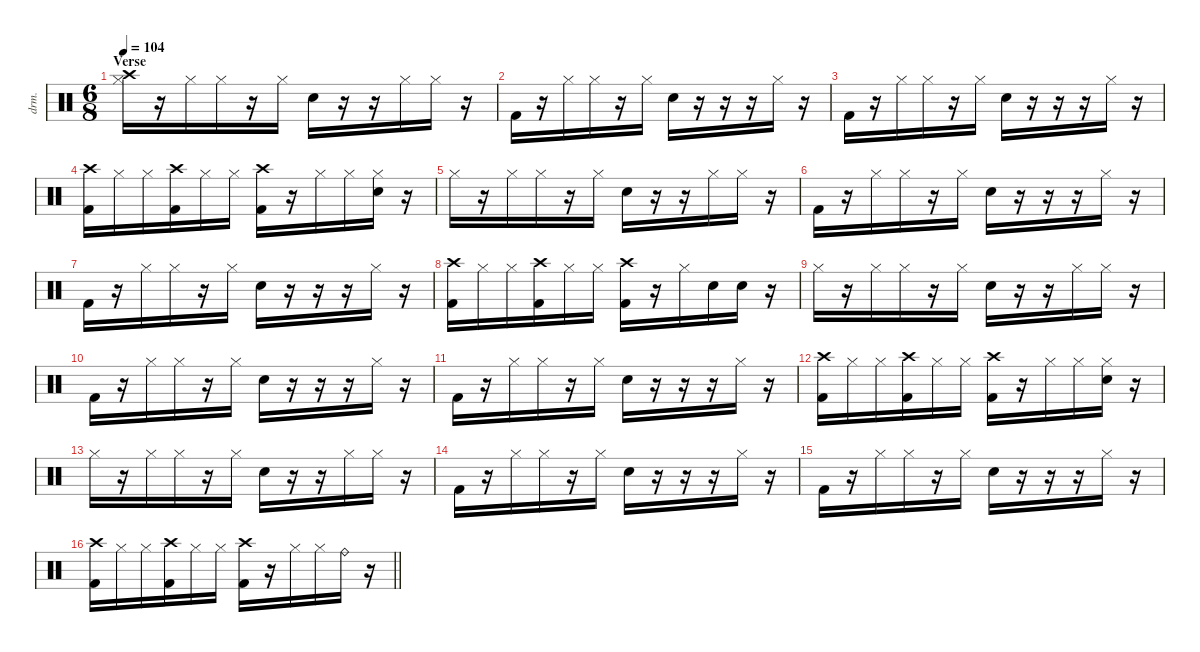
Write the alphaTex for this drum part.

\defaultSystemsLayout 4
\hideDynamics
\bracketExtendMode nobrackets
\otherSystemsTrackNameOrientation horizontal
\track ("Gene Hoglan" "drm.") {instrument percussion}
\staff {score}
\articulation defaults
\ts (6 8)
\section ("" "Verse")
\tempo 104
\clef neutral
\ks c
("Hi-Hat (closed)" "Crash high (hit)").16{dy f beam Down} r.16{beam Down} "Hi-Hat (closed)".16{beam Down} "Hi-Hat (closed)".16{beam Down} r.16{beam Down} "Hi-Hat (closed)".16{beam Down} "Snare (hit) 2".16{beam Down} r.16{beam Down} r.16{beam Down} "Hi-Hat (closed)".16{beam Down} "Hi-Hat (closed)".16{beam Down} r.16{beam Down} |
"Kick (hit) 2".16{beam Down} r.16{beam Down} "Hi-Hat (closed)".16{beam Down} "Hi-Hat (closed)".16{beam Down} r.16{beam Down} "Hi-Hat (closed)".16{beam Down} "Snare (hit) 2".16{beam Down} r.16{beam Down} r.16{beam Down} r.16{beam Down} "Hi-Hat (closed)".16{beam Down} r.16{beam Down} |
"Kick (hit) 2".16{beam Down} r.16{beam Down} "Hi-Hat (closed)".16{beam Down} "Hi-Hat (closed)".16{beam Down} r.16{beam Down} "Hi-Hat (closed)".16{beam Down} "Snare (hit) 2".16{beam Down} r.16{beam Down} r.16{beam Down} r.16{beam Down} "Hi-Hat (closed)".16{beam Down} r.16{beam Down} |
("Crash high (hit)" "Kick (hit) 2").16{beam Down} "Hi-Hat (closed)".16{beam Down} "Hi-Hat (closed)".16{beam Down} ("Crash high (hit)" "Kick (hit) 2").16{beam Down} "Hi-Hat (closed)".16{beam Down} "Hi-Hat (closed)".16{beam Down} ("Crash high (hit)" "Kick (hit) 2").16{beam Down} r.16{beam Down} "Hi-Hat (closed)".16{beam Down} "Hi-Hat (closed)".16{beam Down} ("Hi-Hat (closed)" "Snare (hit) 2").16{beam Down} r.16{beam Down} |
"Hi-Hat (closed)".16{beam Down} r.16{beam Down} "Hi-Hat (closed)".16{beam Down} "Hi-Hat (closed)".16{beam Down} r.16{beam Down} "Hi-Hat (closed)".16{beam Down} "Snare (hit) 2".16{beam Down} r.16{beam Down} r.16{beam Down} "Hi-Hat (closed)".16{beam Down} "Hi-Hat (closed)".16{beam Down} r.16{beam Down} |
"Kick (hit) 2".16{beam Down} r.16{beam Down} "Hi-Hat (closed)".16{beam Down} "Hi-Hat (closed)".16{beam Down} r.16{beam Down} "Hi-Hat (closed)".16{beam Down} "Snare (hit) 2".16{beam Down} r.16{beam Down} r.16{beam Down} r.16{beam Down} "Hi-Hat (closed)".16{beam Down} r.16{beam Down} |
"Kick (hit) 2".16{beam Down} r.16{beam Down} "Hi-Hat (closed)".16{beam Down} "Hi-Hat (closed)".16{beam Down} r.16{beam Down} "Hi-Hat (closed)".16{beam Down} "Snare (hit) 2".16{beam Down} r.16{beam Down} r.16{beam Down} r.16{beam Down} "Hi-Hat (closed)".16{beam Down} r.16{beam Down} |
("Crash high (hit)" "Kick (hit) 2").16{beam Down} "Hi-Hat (closed)".16{beam Down} "Hi-Hat (closed)".16{beam Down} ("Crash high (hit)" "Kick (hit) 2").16{beam Down} "Hi-Hat (closed)".16{beam Down} "Hi-Hat (closed)".16{beam Down} ("Crash high (hit)" "Kick (hit) 2").16{beam Down} r.16{beam Down} "Hi-Hat (closed)".16{beam Down} "Snare (hit) 2".16{beam Down} "Snare (hit) 2".16{beam Down} r.16{beam Down} |
"Hi-Hat (closed)".16{beam Down} r.16{beam Down} "Hi-Hat (closed)".16{beam Down} "Hi-Hat (closed)".16{beam Down} r.16{beam Down} "Hi-Hat (closed)".16{beam Down} "Snare (hit) 2".16{beam Down} r.16{beam Down} r.16{beam Down} "Hi-Hat (closed)".16{beam Down} "Hi-Hat (closed)".16{beam Down} r.16{beam Down} |
"Kick (hit) 2".16{beam Down} r.16{beam Down} "Hi-Hat (closed)".16{beam Down} "Hi-Hat (closed)".16{beam Down} r.16{beam Down} "Hi-Hat (closed)".16{beam Down} "Snare (hit) 2".16{beam Down} r.16{beam Down} r.16{beam Down} r.16{beam Down} "Hi-Hat (closed)".16{beam Down} r.16{beam Down} |
"Kick (hit) 2".16{beam Down} r.16{beam Down} "Hi-Hat (closed)".16{beam Down} "Hi-Hat (closed)".16{beam Down} r.16{beam Down} "Hi-Hat (closed)".16{beam Down} "Snare (hit) 2".16{beam Down} r.16{beam Down} r.16{beam Down} r.16{beam Down} "Hi-Hat (closed)".16{beam Down} r.16{beam Down} |
("Crash high (hit)" "Kick (hit) 2").16{beam Down} "Hi-Hat (closed)".16{beam Down} "Hi-Hat (closed)".16{beam Down} ("Crash high (hit)" "Kick (hit) 2").16{beam Down} "Hi-Hat (closed)".16{beam Down} "Hi-Hat (closed)".16{beam Down} ("Crash high (hit)" "Kick (hit) 2").16{beam Down} r.16{beam Down} "Hi-Hat (closed)".16{beam Down} "Hi-Hat (closed)".16{beam Down} ("Hi-Hat (closed)" "Snare (hit) 2").16{beam Down} r.16{beam Down} |
"Hi-Hat (closed)".16{beam Down} r.16{beam Down} "Hi-Hat (closed)".16{beam Down} "Hi-Hat (closed)".16{beam Down} r.16{beam Down} "Hi-Hat (closed)".16{beam Down} "Snare (hit) 2".16{beam Down} r.16{beam Down} r.16{beam Down} "Hi-Hat (closed)".16{beam Down} "Hi-Hat (closed)".16{beam Down} r.16{beam Down} |
"Kick (hit) 2".16{beam Down} r.16{beam Down} "Hi-Hat (closed)".16{beam Down} "Hi-Hat (closed)".16{beam Down} r.16{beam Down} "Hi-Hat (closed)".16{beam Down} "Snare (hit) 2".16{beam Down} r.16{beam Down} r.16{beam Down} r.16{beam Down} "Hi-Hat (closed)".16{beam Down} r.16{beam Down} |
"Kick (hit) 2".16{beam Down} r.16{beam Down} "Hi-Hat (closed)".16{beam Down} "Hi-Hat (closed)".16{beam Down} r.16{beam Down} "Hi-Hat (closed)".16{beam Down} "Snare (hit) 2".16{beam Down} r.16{beam Down} r.16{beam Down} r.16{beam Down} "Hi-Hat (closed)".16{beam Down} r.16{beam Down} |
\barLineRight lightlight
("Crash high (hit)" "Kick (hit) 2").16{beam Down} "Hi-Hat (closed)".16{beam Down} "Hi-Hat (closed)".16{beam Down} ("Crash high (hit)" "Kick (hit) 2").16{beam Down} "Hi-Hat (closed)".16{beam Down} "Hi-Hat (closed)".16{beam Down} ("Crash high (hit)" "Kick (hit) 2").16{beam Down} r.16{beam Down} "Hi-Hat (closed)".16{beam Down} "Hi-Hat (closed)".16{beam Down} "Ride (bell)".16{beam Down} r.16{beam Down}
